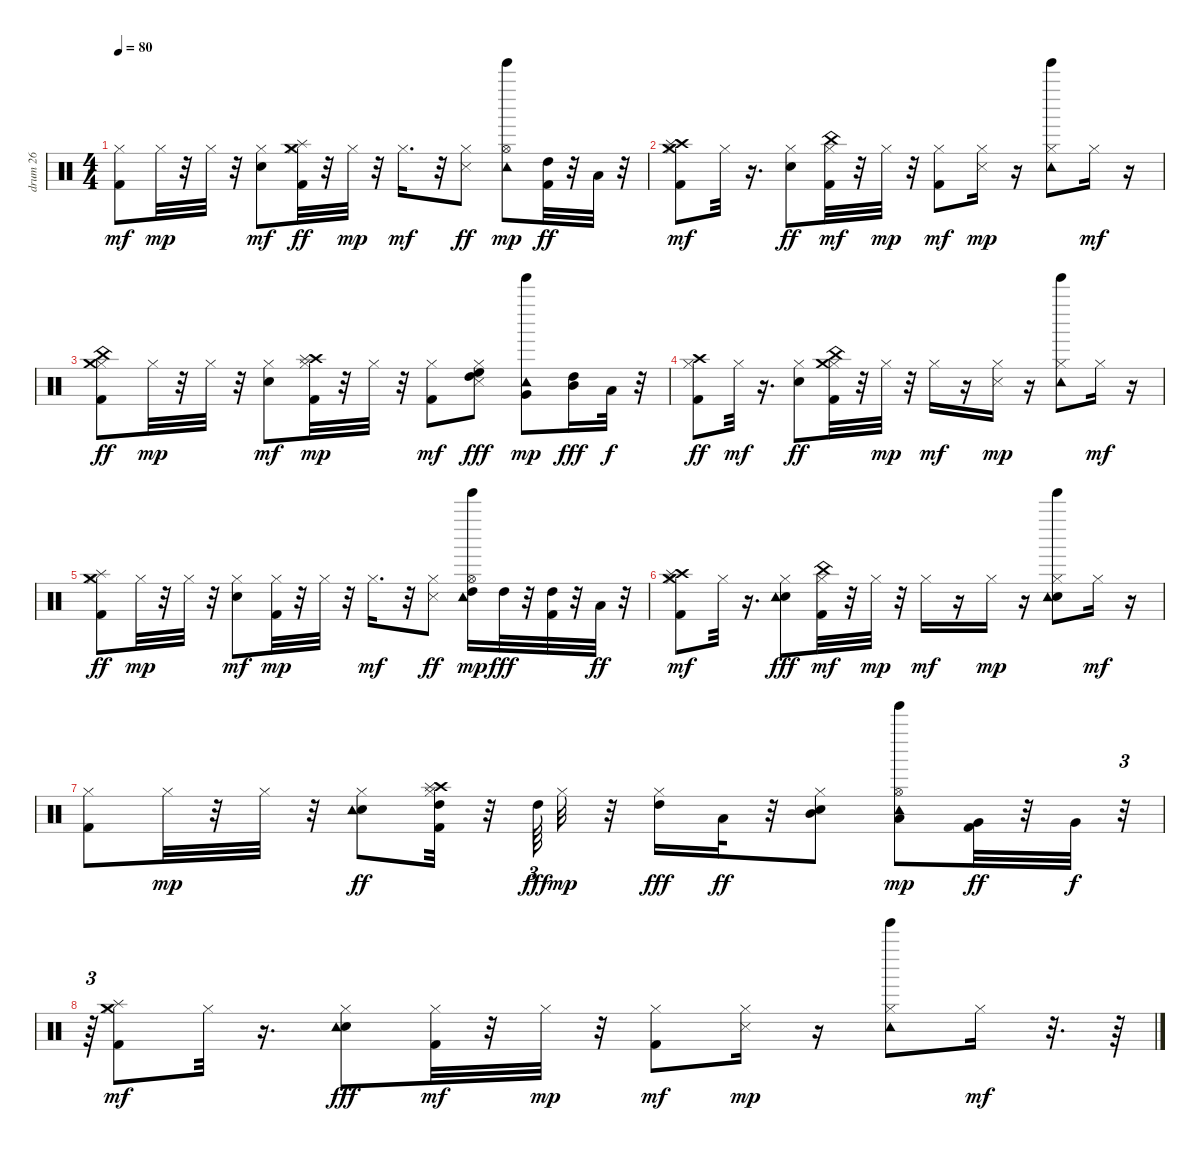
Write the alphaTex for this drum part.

\track ("drum 26" "drum 26") {instrument percussion}
\staff {score}
\articulation defaults
\ts (4 4)
\tempo 80
\clef neutral
\ks c
("Kick (hit) 2" "Hi-Hat (closed)").8{dy mf} "Hi-Hat (closed)".32{dy mp} r.32 "Hi-Hat (closed)".32 r.32 ("Hand Clap (hit)" "Hi-Hat (closed)").8{dy mf} ("Kick (hit) 2" "Hi-Hat (closed)" "Splash (hit)" "Crash medium (hit)").32{dy ff} r.32 "Hi-Hat (closed)".32{dy mp} r.32 "Hi-Hat (closed)".16{d dy mf} r.32 ("Snare (side stick) 3" "Hi-Hat (closed)").8{dy ff} ("Hi-Hat (open)" "Tambourine (hit)" "Tinkle Bell (hit)").8{dy mp} ("Kick (hit) 2" "High Tom (hit)").32{dy ff} r.32 "Low Tom (hit)".32 r.32 |
("Kick (hit) 2" "Hi-Hat (closed)" "Crash high (hit)" "Splash (hit)" "Crash medium (hit)").8{dy mf} "Hi-Hat (closed)".32 r.16{d} ("Hand Clap (hit)" "Hi-Hat (closed)").8{dy ff} ("Kick (hit) 2" "Hi-Hat (closed)" "China (hit)").32{dy mf} r.32 "Hi-Hat (closed)".32{dy mp} r.32 ("Kick (hit) 2" "Hi-Hat (closed)").8{dy mf} ("Snare (side stick) 3" "Hi-Hat (closed)").16{dy mp} r.16 ("Hi-Hat (closed)" "Tambourine (hit)" "Tinkle Bell (hit)").8 "Hi-Hat (closed)".16{dy mf} r.16 |
("Kick (hit) 2" "Hi-Hat (closed)" "China (hit)" "Crash medium (hit)").8{dy ff} "Hi-Hat (closed)".32{dy mp} r.32 "Hi-Hat (closed)".32 r.32 ("Hand Clap (hit)" "Hi-Hat (closed)").8{dy mf} ("Kick (hit) 2" "Hi-Hat (closed)" "Crash high (hit)" "Splash (hit)").32{dy mp} r.32 "Hi-Hat (closed)".32 r.32 ("Kick (hit) 2" "Hi-Hat (closed)").8{dy mf} ("High Tom (hit)" "Snare (side stick) 3" "Hi-Hat (closed)" "High Floor Tom (hit)").8{dy fff} ("Very Low Tom (hit)" "Tambourine (hit)" "Tinkle Bell (hit)").8{dy mp} ("Mid Tom (hit)" "High Tom (hit)").16{dy fff} "Low Tom (hit)".32{dy f} r.32 |
("Kick (hit) 2" "Hi-Hat (closed)" "Crash high (hit)").8{dy ff} "Hi-Hat (closed)".32{dy mf} r.16{d} ("Hand Clap (hit)" "Hi-Hat (closed)").8{dy ff} ("Kick (hit) 2" "Hi-Hat (closed)" "China (hit)" "Crash medium (hit)").32 r.32 "Hi-Hat (closed)".32{dy mp} r.32 "Hi-Hat (closed)".16{dy mf} r.16 ("Snare (side stick) 3" "Hi-Hat (closed)").16{dy mp} r.16 ("Hi-Hat (closed)" "Tambourine (hit)" "Tinkle Bell (hit)").8 "Hi-Hat (closed)".16{dy mf} r.16 |
("Kick (hit) 2" "Hi-Hat (closed)" "Splash (hit)" "Crash medium (hit)").8{dy ff} "Hi-Hat (closed)".32{dy mp} r.32 "Hi-Hat (closed)".32 r.32 ("Hand Clap (hit)" "Hi-Hat (closed)").8{dy mf} ("Kick (hit) 2" "Hi-Hat (closed)").32{dy mp} r.32 "Hi-Hat (closed)".32 r.32 "Hi-Hat (closed)".16{d dy mf} r.32 ("Snare (side stick) 3" "Hi-Hat (closed)").8{dy ff} ("Hi-Hat (open)" "High Tom (hit)" "Tambourine (hit)" "Tinkle Bell (hit)").16{dy mp} "High Tom (hit)".32{dy fff} r.32 ("Kick (hit) 2" "High Tom (hit)").32 r.32 "Low Tom (hit)".32{dy ff} r.32 |
("Kick (hit) 2" "Hi-Hat (closed)" "Crash high (hit)" "Splash (hit)" "Crash medium (hit)").8{dy mf} "Hi-Hat (closed)".32 r.16{d} ("Hand Clap (hit)" "Hi-Hat (closed)" "Tambourine (hit)").8{dy fff} ("Kick (hit) 2" "Hi-Hat (closed)" "China (hit)").32{dy mf} r.32 "Hi-Hat (closed)".32{dy mp} r.32 "Hi-Hat (closed)".16{dy mf} r.16 "Hi-Hat (closed)".16{dy mp} r.16 ("Electric Snare (hit)" "Hi-Hat (closed)" "Tambourine (hit)" "Tinkle Bell (hit)").8 "Hi-Hat (closed)".16{dy mf} r.16 |
("Kick (hit) 2" "Hi-Hat (closed)").8 "Hi-Hat (closed)".32{dy mp} r.32 "Hi-Hat (closed)".32 r.32 ("Hand Clap (hit)" "Hi-Hat (closed)" "Tambourine (hit)").8{dy ff} ("Kick (hit) 2" "Hi-Hat (closed)" "High Tom (hit)" "Crash high (hit)" "Splash (hit)").32 r.32 "High Tom (hit)".64{tu (3 2) dy fff} "Hi-Hat (closed)".32{dy mp} r.32 ("Hi-Hat (closed)" "High Tom (hit)").16{dy fff} "Low Tom (hit)".32{dy ff} r.32 ("Snare (hit) 2" "Hi-Hat (closed)" "Mid Tom (hit)").8 ("Low Tom (hit)" "Hi-Hat (open)" "Tambourine (hit)" "Tinkle Bell (hit)").8{dy mp} ("Kick (hit) 2" "Very Low Tom (hit)").32{dy ff} r.32 "Very Low Tom (hit)".32{dy f} r.32{tu (3 2)} |
r.64{tu (3 2)} ("Kick (hit) 2" "Hi-Hat (closed)" "Splash (hit)" "Crash medium (hit)").8{dy mf} "Hi-Hat (closed)".32 r.16{d} ("Hand Clap (hit)" "Hi-Hat (closed)" "Tambourine (hit)").8{dy fff} ("Kick (hit) 2" "Hi-Hat (closed)").32{dy mf} r.32 "Hi-Hat (closed)".32{dy mp} r.32 ("Kick (hit) 2" "Hi-Hat (closed)").8{dy mf} ("Snare (side stick) 3" "Hi-Hat (closed)").16{dy mp} r.16 ("Hi-Hat (closed)" "Tambourine (hit)" "Tinkle Bell (hit)").8 "Hi-Hat (closed)".16{dy mf} r.32{d} r.64
